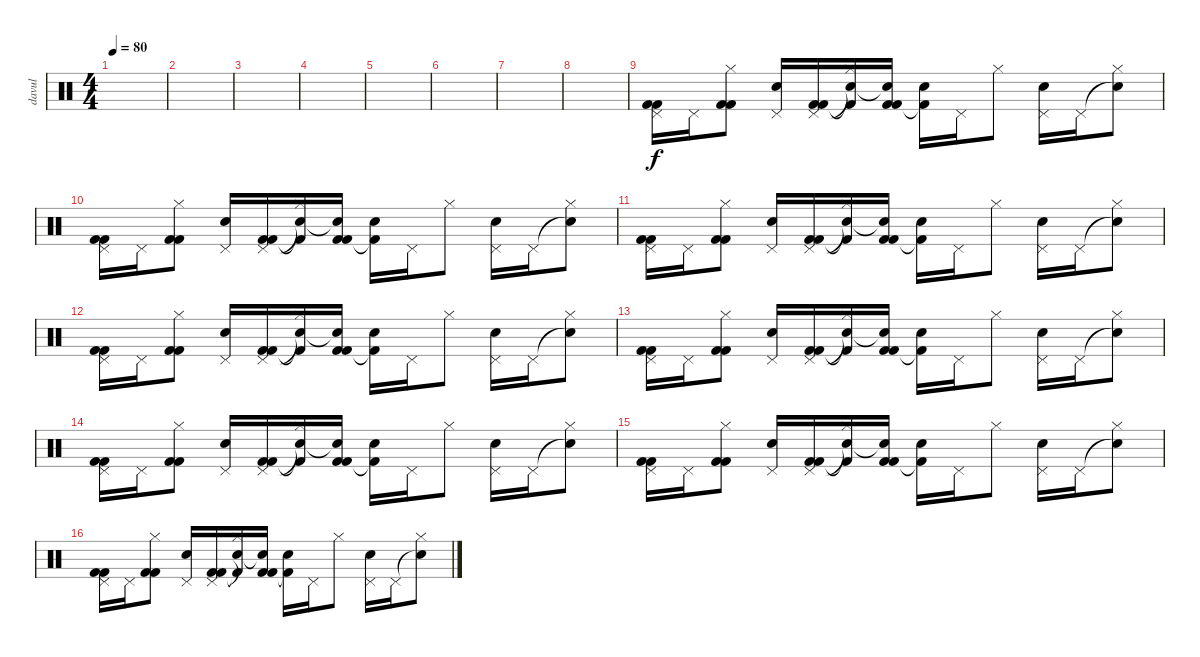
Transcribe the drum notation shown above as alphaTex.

\track ("davul" "davul") {instrument percussion}
\staff {score}
\articulation defaults
\ts (4 4)
\tempo 80
\clef neutral
\ks c
|
|
|
|
|
|
|
|
("Pedal Hi-Hat (hit)" "Kick (hit) 2" "Kick (hit) 2").16 "Pedal Hi-Hat (hit)".16 ("Hi-Hat (closed)" "Kick (hit) 2" "Kick (hit) 2").8 ("Electric Snare (hit)" "Pedal Hi-Hat (hit)").16 ("Pedal Hi-Hat (hit)" "Kick (hit) 2" "Kick (hit) 2").16 ("Snare (hit)"{t} "Hi-Hat (closed)" "Kick (hit) 2"{t}).16 ("Snare (hit)"{t} "Kick (hit) 2" "Kick (hit) 2").16 ("Snare (hit)" "Kick (hit) 2"{t}).16 "Pedal Hi-Hat (hit)".16 "Hi-Hat (closed)".8 ("Electric Snare (hit)" "Pedal Hi-Hat (hit)").16 "Pedal Hi-Hat (hit)".16 ("Snare (hit)"{t} "Hi-Hat (closed)").8 |
("Pedal Hi-Hat (hit)" "Kick (hit) 2" "Kick (hit) 2").16 "Pedal Hi-Hat (hit)".16 ("Hi-Hat (closed)" "Kick (hit) 2" "Kick (hit) 2").8 ("Electric Snare (hit)" "Pedal Hi-Hat (hit)").16 ("Pedal Hi-Hat (hit)" "Kick (hit) 2" "Kick (hit) 2").16 ("Snare (hit)"{t} "Hi-Hat (closed)" "Kick (hit) 2"{t}).16 ("Snare (hit)"{t} "Kick (hit) 2" "Kick (hit) 2").16 ("Snare (hit)" "Kick (hit) 2"{t}).16 "Pedal Hi-Hat (hit)".16 "Hi-Hat (closed)".8 ("Electric Snare (hit)" "Pedal Hi-Hat (hit)").16 "Pedal Hi-Hat (hit)".16 ("Snare (hit)"{t} "Hi-Hat (closed)").8 |
("Pedal Hi-Hat (hit)" "Kick (hit) 2" "Kick (hit) 2").16 "Pedal Hi-Hat (hit)".16 ("Hi-Hat (closed)" "Kick (hit) 2" "Kick (hit) 2").8 ("Electric Snare (hit)" "Pedal Hi-Hat (hit)").16 ("Pedal Hi-Hat (hit)" "Kick (hit) 2" "Kick (hit) 2").16 ("Snare (hit)"{t} "Hi-Hat (closed)" "Kick (hit) 2"{t}).16 ("Snare (hit)"{t} "Kick (hit) 2" "Kick (hit) 2").16 ("Snare (hit)" "Kick (hit) 2"{t}).16 "Pedal Hi-Hat (hit)".16 "Hi-Hat (closed)".8 ("Electric Snare (hit)" "Pedal Hi-Hat (hit)").16 "Pedal Hi-Hat (hit)".16 ("Snare (hit)"{t} "Hi-Hat (closed)").8 |
("Pedal Hi-Hat (hit)" "Kick (hit) 2" "Kick (hit) 2").16 "Pedal Hi-Hat (hit)".16 ("Hi-Hat (closed)" "Kick (hit) 2" "Kick (hit) 2").8 ("Electric Snare (hit)" "Pedal Hi-Hat (hit)").16 ("Pedal Hi-Hat (hit)" "Kick (hit) 2" "Kick (hit) 2").16 ("Snare (hit)"{t} "Hi-Hat (closed)" "Kick (hit) 2"{t}).16 ("Snare (hit)"{t} "Kick (hit) 2" "Kick (hit) 2").16 ("Snare (hit)" "Kick (hit) 2"{t}).16 "Pedal Hi-Hat (hit)".16 "Hi-Hat (closed)".8 ("Electric Snare (hit)" "Pedal Hi-Hat (hit)").16 "Pedal Hi-Hat (hit)".16 ("Snare (hit)"{t} "Hi-Hat (closed)").8 |
("Pedal Hi-Hat (hit)" "Kick (hit) 2" "Kick (hit) 2").16 "Pedal Hi-Hat (hit)".16 ("Hi-Hat (closed)" "Kick (hit) 2" "Kick (hit) 2").8 ("Electric Snare (hit)" "Pedal Hi-Hat (hit)").16 ("Pedal Hi-Hat (hit)" "Kick (hit) 2" "Kick (hit) 2").16 ("Snare (hit)"{t} "Hi-Hat (closed)" "Kick (hit) 2"{t}).16 ("Snare (hit)"{t} "Kick (hit) 2" "Kick (hit) 2").16 ("Snare (hit)" "Kick (hit) 2"{t}).16 "Pedal Hi-Hat (hit)".16 "Hi-Hat (closed)".8 ("Electric Snare (hit)" "Pedal Hi-Hat (hit)").16 "Pedal Hi-Hat (hit)".16 ("Snare (hit)"{t} "Hi-Hat (closed)").8 |
("Pedal Hi-Hat (hit)" "Kick (hit) 2" "Kick (hit) 2").16 "Pedal Hi-Hat (hit)".16 ("Hi-Hat (closed)" "Kick (hit) 2" "Kick (hit) 2").8 ("Electric Snare (hit)" "Pedal Hi-Hat (hit)").16 ("Pedal Hi-Hat (hit)" "Kick (hit) 2" "Kick (hit) 2").16 ("Snare (hit)"{t} "Hi-Hat (closed)" "Kick (hit) 2"{t}).16 ("Snare (hit)"{t} "Kick (hit) 2" "Kick (hit) 2").16 ("Snare (hit)" "Kick (hit) 2"{t}).16 "Pedal Hi-Hat (hit)".16 "Hi-Hat (closed)".8 ("Electric Snare (hit)" "Pedal Hi-Hat (hit)").16 "Pedal Hi-Hat (hit)".16 ("Snare (hit)"{t} "Hi-Hat (closed)").8 |
("Pedal Hi-Hat (hit)" "Kick (hit) 2" "Kick (hit) 2").16 "Pedal Hi-Hat (hit)".16 ("Hi-Hat (closed)" "Kick (hit) 2" "Kick (hit) 2").8 ("Electric Snare (hit)" "Pedal Hi-Hat (hit)").16 ("Pedal Hi-Hat (hit)" "Kick (hit) 2" "Kick (hit) 2").16 ("Snare (hit)"{t} "Hi-Hat (closed)" "Kick (hit) 2"{t}).16 ("Snare (hit)"{t} "Kick (hit) 2" "Kick (hit) 2").16 ("Snare (hit)" "Kick (hit) 2"{t}).16 "Pedal Hi-Hat (hit)".16 "Hi-Hat (closed)".8 ("Electric Snare (hit)" "Pedal Hi-Hat (hit)").16 "Pedal Hi-Hat (hit)".16 ("Snare (hit)"{t} "Hi-Hat (closed)").8 |
("Pedal Hi-Hat (hit)" "Kick (hit) 2" "Kick (hit) 2").16 "Pedal Hi-Hat (hit)".16 ("Hi-Hat (closed)" "Kick (hit) 2" "Kick (hit) 2").8 ("Electric Snare (hit)" "Pedal Hi-Hat (hit)").16 ("Pedal Hi-Hat (hit)" "Kick (hit) 2" "Kick (hit) 2").16 ("Snare (hit)"{t} "Hi-Hat (closed)" "Kick (hit) 2"{t}).16 ("Snare (hit)"{t} "Kick (hit) 2" "Kick (hit) 2").16 ("Snare (hit)" "Kick (hit) 2"{t}).16 "Pedal Hi-Hat (hit)".16 "Hi-Hat (closed)".8 ("Electric Snare (hit)" "Pedal Hi-Hat (hit)").16 "Pedal Hi-Hat (hit)".16 ("Snare (hit)"{t} "Hi-Hat (closed)").8
